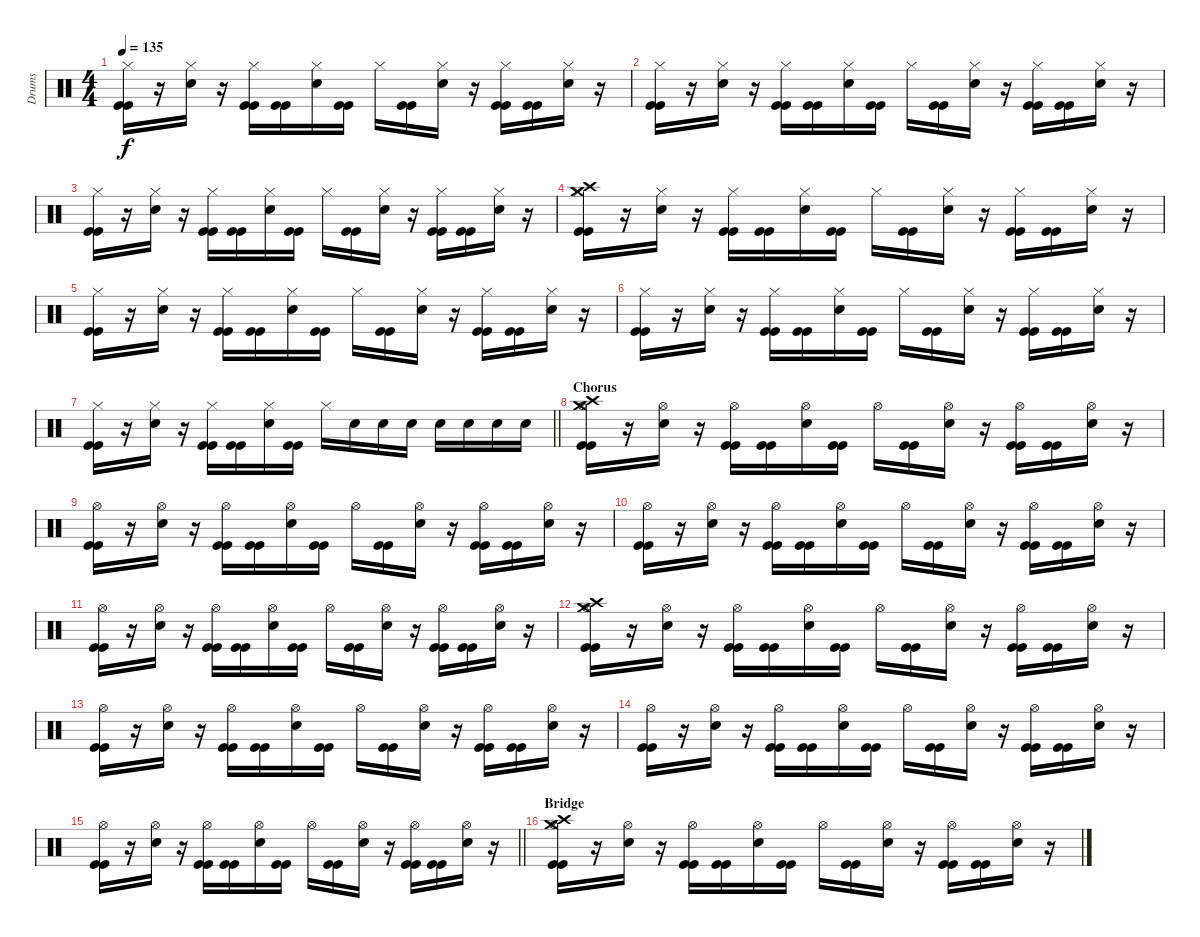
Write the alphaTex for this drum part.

\track ("Drums" "Drums") {instrument percussion}
\staff {score}
\articulation defaults
\ts (4 4)
\tempo 135
\clef neutral
\ks c
("Hi-Hat (closed)" "Kick (hit)" "Kick (hit)").16{dy f} r.16 ("Hi-Hat (closed)" "Snare (hit) 2").16 r.16 ("Hi-Hat (closed)" "Kick (hit)" "Kick (hit)").16 ("Kick (hit)" "Kick (hit)").16 ("Hi-Hat (closed)" "Snare (hit) 2").16 ("Kick (hit)" "Kick (hit)").16 "Hi-Hat (closed)".16 ("Kick (hit)" "Kick (hit)").16 ("Hi-Hat (closed)" "Snare (hit) 2").16 r.16 ("Hi-Hat (closed)" "Kick (hit)" "Kick (hit)").16 ("Kick (hit)" "Kick (hit)").16 ("Hi-Hat (closed)" "Snare (hit) 2").16 r.16 |
("Hi-Hat (closed)" "Kick (hit)" "Kick (hit)").16 r.16 ("Hi-Hat (closed)" "Snare (hit) 2").16 r.16 ("Hi-Hat (closed)" "Kick (hit)" "Kick (hit)").16 ("Kick (hit)" "Kick (hit)").16 ("Hi-Hat (closed)" "Snare (hit) 2").16 ("Kick (hit)" "Kick (hit)").16 "Hi-Hat (closed)".16 ("Kick (hit)" "Kick (hit)").16 ("Hi-Hat (closed)" "Snare (hit) 2").16 r.16 ("Hi-Hat (closed)" "Kick (hit)" "Kick (hit)").16 ("Kick (hit)" "Kick (hit)").16 ("Hi-Hat (closed)" "Snare (hit) 2").16 r.16 |
("Hi-Hat (closed)" "Kick (hit)" "Kick (hit)").16 r.16 ("Hi-Hat (closed)" "Snare (hit) 2").16 r.16 ("Hi-Hat (closed)" "Kick (hit)" "Kick (hit)").16 ("Kick (hit)" "Kick (hit)").16 ("Hi-Hat (closed)" "Snare (hit) 2").16 ("Kick (hit)" "Kick (hit)").16 "Hi-Hat (closed)".16 ("Kick (hit)" "Kick (hit)").16 ("Hi-Hat (closed)" "Snare (hit) 2").16 r.16 ("Hi-Hat (closed)" "Kick (hit)" "Kick (hit)").16 ("Kick (hit)" "Kick (hit)").16 ("Hi-Hat (closed)" "Snare (hit) 2").16 r.16 |
("Crash medium (hit)" "Crash high (hit)" "Hi-Hat (closed)" "Kick (hit)" "Kick (hit)").16 r.16 ("Hi-Hat (closed)" "Snare (hit) 2").16 r.16 ("Hi-Hat (closed)" "Kick (hit)" "Kick (hit)").16 ("Kick (hit)" "Kick (hit)").16 ("Hi-Hat (closed)" "Snare (hit) 2").16 ("Kick (hit)" "Kick (hit)").16 "Hi-Hat (closed)".16 ("Kick (hit)" "Kick (hit)").16 ("Hi-Hat (closed)" "Snare (hit) 2").16 r.16 ("Hi-Hat (closed)" "Kick (hit)" "Kick (hit)").16 ("Kick (hit)" "Kick (hit)").16 ("Hi-Hat (closed)" "Snare (hit) 2").16 r.16 |
("Hi-Hat (closed)" "Kick (hit)" "Kick (hit)").16 r.16 ("Hi-Hat (closed)" "Snare (hit) 2").16 r.16 ("Hi-Hat (closed)" "Kick (hit)" "Kick (hit)").16 ("Kick (hit)" "Kick (hit)").16 ("Hi-Hat (closed)" "Snare (hit) 2").16 ("Kick (hit)" "Kick (hit)").16 "Hi-Hat (closed)".16 ("Kick (hit)" "Kick (hit)").16 ("Hi-Hat (closed)" "Snare (hit) 2").16 r.16 ("Hi-Hat (closed)" "Kick (hit)" "Kick (hit)").16 ("Kick (hit)" "Kick (hit)").16 ("Hi-Hat (closed)" "Snare (hit) 2").16 r.16 |
("Hi-Hat (closed)" "Kick (hit)" "Kick (hit)").16 r.16 ("Hi-Hat (closed)" "Snare (hit) 2").16 r.16 ("Hi-Hat (closed)" "Kick (hit)" "Kick (hit)").16 ("Kick (hit)" "Kick (hit)").16 ("Hi-Hat (closed)" "Snare (hit) 2").16 ("Kick (hit)" "Kick (hit)").16 "Hi-Hat (closed)".16 ("Kick (hit)" "Kick (hit)").16 ("Hi-Hat (closed)" "Snare (hit) 2").16 r.16 ("Hi-Hat (closed)" "Kick (hit)" "Kick (hit)").16 ("Kick (hit)" "Kick (hit)").16 ("Hi-Hat (closed)" "Snare (hit) 2").16 r.16 |
\barLineRight lightlight
("Hi-Hat (closed)" "Kick (hit)" "Kick (hit)").16 r.16 ("Hi-Hat (closed)" "Snare (hit) 2").16 r.16 ("Hi-Hat (closed)" "Kick (hit)" "Kick (hit)").16 ("Kick (hit)" "Kick (hit)").16 ("Hi-Hat (closed)" "Snare (hit) 2").16 ("Kick (hit)" "Kick (hit)").16 "Hi-Hat (closed)".16 "Snare (hit) 2".16 "Snare (hit) 2".16 "Snare (hit) 2".16 "Snare (hit) 2".16 "Snare (hit) 2".16 "Snare (hit) 2".16 "Snare (hit) 2".16 |
\section ("" "Chorus")
("Crash medium (hit)" "Crash high (hit)" "Hi-Hat (open)" "Kick (hit)" "Kick (hit)").16 r.16 ("Hi-Hat (open)" "Snare (hit) 2").16 r.16 ("Hi-Hat (open)" "Kick (hit)" "Kick (hit)").16 ("Kick (hit)" "Kick (hit)").16 ("Hi-Hat (open)" "Snare (hit) 2").16 ("Kick (hit)" "Kick (hit)").16 "Hi-Hat (open)".16 ("Kick (hit)" "Kick (hit)").16 ("Hi-Hat (open)" "Snare (hit) 2").16 r.16 ("Hi-Hat (open)" "Kick (hit)" "Kick (hit)").16 ("Kick (hit)" "Kick (hit)").16 ("Hi-Hat (open)" "Snare (hit) 2").16 r.16 |
("Hi-Hat (open)" "Kick (hit)" "Kick (hit)").16 r.16 ("Hi-Hat (open)" "Snare (hit) 2").16 r.16 ("Hi-Hat (open)" "Kick (hit)" "Kick (hit)").16 ("Kick (hit)" "Kick (hit)").16 ("Hi-Hat (open)" "Snare (hit) 2").16 ("Kick (hit)" "Kick (hit)").16 "Hi-Hat (open)".16 ("Kick (hit)" "Kick (hit)").16 ("Hi-Hat (open)" "Snare (hit) 2").16 r.16 ("Hi-Hat (open)" "Kick (hit)" "Kick (hit)").16 ("Kick (hit)" "Kick (hit)").16 ("Hi-Hat (open)" "Snare (hit) 2").16 r.16 |
("Hi-Hat (open)" "Kick (hit)" "Kick (hit)").16 r.16 ("Hi-Hat (open)" "Snare (hit) 2").16 r.16 ("Hi-Hat (open)" "Kick (hit)" "Kick (hit)").16 ("Kick (hit)" "Kick (hit)").16 ("Hi-Hat (open)" "Snare (hit) 2").16 ("Kick (hit)" "Kick (hit)").16 "Hi-Hat (open)".16 ("Kick (hit)" "Kick (hit)").16 ("Hi-Hat (open)" "Snare (hit) 2").16 r.16 ("Hi-Hat (open)" "Kick (hit)" "Kick (hit)").16 ("Kick (hit)" "Kick (hit)").16 ("Hi-Hat (open)" "Snare (hit) 2").16 r.16 |
("Hi-Hat (open)" "Kick (hit)" "Kick (hit)").16 r.16 ("Hi-Hat (open)" "Snare (hit) 2").16 r.16 ("Hi-Hat (open)" "Kick (hit)" "Kick (hit)").16 ("Kick (hit)" "Kick (hit)").16 ("Hi-Hat (open)" "Snare (hit) 2").16 ("Kick (hit)" "Kick (hit)").16 "Hi-Hat (open)".16 ("Kick (hit)" "Kick (hit)").16 ("Hi-Hat (open)" "Snare (hit) 2").16 r.16 ("Hi-Hat (open)" "Kick (hit)" "Kick (hit)").16 ("Kick (hit)" "Kick (hit)").16 ("Hi-Hat (open)" "Snare (hit) 2").16 r.16 |
("Crash medium (hit)" "Crash high (hit)" "Hi-Hat (open)" "Kick (hit)" "Kick (hit)").16 r.16 ("Hi-Hat (open)" "Snare (hit) 2").16 r.16 ("Hi-Hat (open)" "Kick (hit)" "Kick (hit)").16 ("Kick (hit)" "Kick (hit)").16 ("Hi-Hat (open)" "Snare (hit) 2").16 ("Kick (hit)" "Kick (hit)").16 "Hi-Hat (open)".16 ("Kick (hit)" "Kick (hit)").16 ("Hi-Hat (open)" "Snare (hit) 2").16 r.16 ("Hi-Hat (open)" "Kick (hit)" "Kick (hit)").16 ("Kick (hit)" "Kick (hit)").16 ("Hi-Hat (open)" "Snare (hit) 2").16 r.16 |
("Hi-Hat (open)" "Kick (hit)" "Kick (hit)").16 r.16 ("Hi-Hat (open)" "Snare (hit) 2").16 r.16 ("Hi-Hat (open)" "Kick (hit)" "Kick (hit)").16 ("Kick (hit)" "Kick (hit)").16 ("Hi-Hat (open)" "Snare (hit) 2").16 ("Kick (hit)" "Kick (hit)").16 "Hi-Hat (open)".16 ("Kick (hit)" "Kick (hit)").16 ("Hi-Hat (open)" "Snare (hit) 2").16 r.16 ("Hi-Hat (open)" "Kick (hit)" "Kick (hit)").16 ("Kick (hit)" "Kick (hit)").16 ("Hi-Hat (open)" "Snare (hit) 2").16 r.16 |
("Hi-Hat (open)" "Kick (hit)" "Kick (hit)").16 r.16 ("Hi-Hat (open)" "Snare (hit) 2").16 r.16 ("Hi-Hat (open)" "Kick (hit)" "Kick (hit)").16 ("Kick (hit)" "Kick (hit)").16 ("Hi-Hat (open)" "Snare (hit) 2").16 ("Kick (hit)" "Kick (hit)").16 "Hi-Hat (open)".16 ("Kick (hit)" "Kick (hit)").16 ("Hi-Hat (open)" "Snare (hit) 2").16 r.16 ("Hi-Hat (open)" "Kick (hit)" "Kick (hit)").16 ("Kick (hit)" "Kick (hit)").16 ("Hi-Hat (open)" "Snare (hit) 2").16 r.16 |
\barLineRight lightlight
("Hi-Hat (open)" "Kick (hit)" "Kick (hit)").16 r.16 ("Hi-Hat (open)" "Snare (hit) 2").16 r.16 ("Hi-Hat (open)" "Kick (hit)" "Kick (hit)").16 ("Kick (hit)" "Kick (hit)").16 ("Hi-Hat (open)" "Snare (hit) 2").16 ("Kick (hit)" "Kick (hit)").16 "Hi-Hat (open)".16 ("Kick (hit)" "Kick (hit)").16 ("Hi-Hat (open)" "Snare (hit) 2").16 r.16 ("Hi-Hat (open)" "Kick (hit)" "Kick (hit)").16 ("Kick (hit)" "Kick (hit)").16 ("Hi-Hat (open)" "Snare (hit) 2").16 r.16 |
\section ("" "Bridge")
("Crash medium (hit)" "Crash high (hit)" "Hi-Hat (open)" "Kick (hit)" "Kick (hit)").16 r.16 ("Hi-Hat (open)" "Snare (hit) 2").16 r.16 ("Hi-Hat (open)" "Kick (hit)" "Kick (hit)").16 ("Kick (hit)" "Kick (hit)").16 ("Hi-Hat (open)" "Snare (hit) 2").16 ("Kick (hit)" "Kick (hit)").16 "Hi-Hat (open)".16 ("Kick (hit)" "Kick (hit)").16 ("Hi-Hat (open)" "Snare (hit) 2").16 r.16 ("Hi-Hat (open)" "Kick (hit)" "Kick (hit)").16 ("Kick (hit)" "Kick (hit)").16 ("Hi-Hat (open)" "Snare (hit) 2").16 r.16
